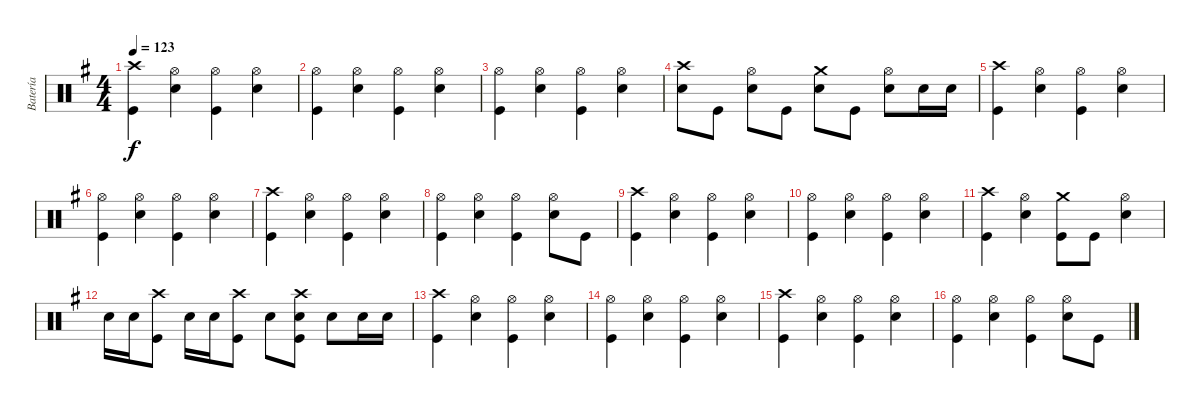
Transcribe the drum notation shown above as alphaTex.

\track ("Batería" "Batería") {instrument percussion}
\staff {score}
\articulation defaults
\ts (4 4)
\tempo 123
\clef neutral
\ks g
("Crash high (hit)" "Kick (hit)").4{dy f} ("Hi-Hat (open)" "Snare (hit) 2").4 ("Hi-Hat (open)" "Kick (hit)").4 ("Hi-Hat (open)" "Snare (hit) 2").4 |
("Hi-Hat (open)" "Kick (hit)").4 ("Hi-Hat (open)" "Snare (hit) 2").4 ("Hi-Hat (open)" "Kick (hit)").4 ("Hi-Hat (open)" "Snare (hit) 2").4 |
("Hi-Hat (open)" "Kick (hit)").4 ("Hi-Hat (open)" "Snare (hit) 2").4 ("Hi-Hat (open)" "Kick (hit)").4 ("Hi-Hat (open)" "Snare (hit) 2").4 |
("Crash high (hit)" "Snare (hit) 2").8 "Kick (hit)".8 ("Hi-Hat (open)" "Snare (hit) 2").8 "Kick (hit)".8 ("Crash medium (hit)" "Snare (hit) 2").8 "Kick (hit)".8 ("Hi-Hat (open)" "Snare (hit) 2").8 "Snare (hit) 2".16 "Snare (hit) 2".16 |
("Crash high (hit)" "Kick (hit)").4 ("Hi-Hat (open)" "Snare (hit) 2").4 ("Hi-Hat (open)" "Kick (hit)").4 ("Hi-Hat (open)" "Snare (hit) 2").4 |
("Hi-Hat (open)" "Kick (hit)").4 ("Hi-Hat (open)" "Snare (hit) 2").4 ("Hi-Hat (open)" "Kick (hit)").4 ("Hi-Hat (open)" "Snare (hit) 2").4 |
("Crash high (hit)" "Kick (hit)").4 ("Hi-Hat (open)" "Snare (hit) 2").4 ("Hi-Hat (open)" "Kick (hit)").4 ("Hi-Hat (open)" "Snare (hit) 2").4 |
("Hi-Hat (open)" "Kick (hit)").4 ("Hi-Hat (open)" "Snare (hit) 2").4 ("Hi-Hat (open)" "Kick (hit)").4 ("Hi-Hat (open)" "Snare (hit) 2").8 "Kick (hit)".8 |
("Crash high (hit)" "Kick (hit)").4 ("Hi-Hat (open)" "Snare (hit) 2").4 ("Hi-Hat (open)" "Kick (hit)").4 ("Hi-Hat (open)" "Snare (hit) 2").4 |
("Hi-Hat (open)" "Kick (hit)").4 ("Hi-Hat (open)" "Snare (hit) 2").4 ("Hi-Hat (open)" "Kick (hit)").4 ("Hi-Hat (open)" "Snare (hit) 2").4 |
("Crash high (hit)" "Kick (hit)").4 ("Hi-Hat (open)" "Snare (hit) 2").4 ("Crash medium (hit)" "Kick (hit)").8 "Kick (hit)".8 ("Hi-Hat (open)" "Snare (hit) 2").4 |
"Snare (hit) 2".16 "Snare (hit) 2".16 ("Crash high (hit)" "Kick (hit)").8 "Snare (hit) 2".16 "Snare (hit) 2".16 ("Crash high (hit)" "Kick (hit)").8 "Snare (hit) 2".8 ("Crash high (hit)" "Snare (hit) 2" "Kick (hit)").8 "Snare (hit) 2".8 "Snare (hit) 2".16 "Snare (hit) 2".16 |
("Crash high (hit)" "Kick (hit)").4 ("Hi-Hat (open)" "Snare (hit) 2").4 ("Hi-Hat (open)" "Kick (hit)").4 ("Hi-Hat (open)" "Snare (hit) 2").4 |
("Hi-Hat (open)" "Kick (hit)").4 ("Hi-Hat (open)" "Snare (hit) 2").4 ("Hi-Hat (open)" "Kick (hit)").4 ("Hi-Hat (open)" "Snare (hit) 2").4 |
("Crash high (hit)" "Kick (hit)").4 ("Hi-Hat (open)" "Snare (hit) 2").4 ("Hi-Hat (open)" "Kick (hit)").4 ("Hi-Hat (open)" "Snare (hit) 2").4 |
("Hi-Hat (open)" "Kick (hit)").4 ("Hi-Hat (open)" "Snare (hit) 2").4 ("Hi-Hat (open)" "Kick (hit)").4 ("Hi-Hat (open)" "Snare (hit) 2").8 "Kick (hit)".8
